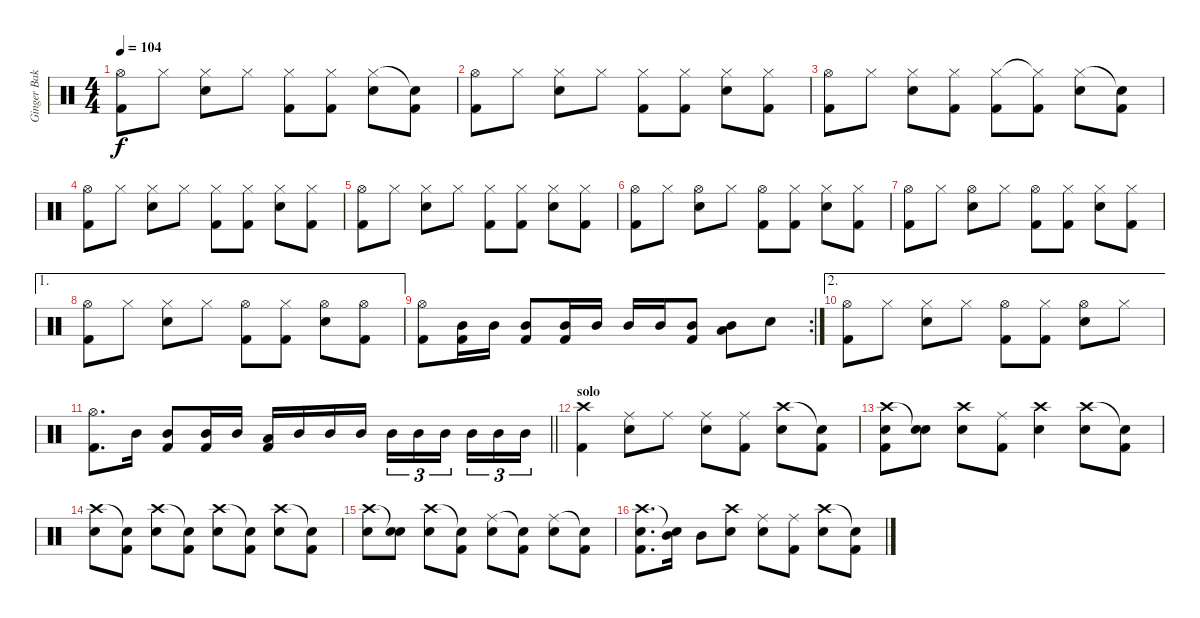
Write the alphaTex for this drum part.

\track ("Ginger Baker" "Ginger Bak") {instrument percussion}
\staff {score}
\articulation defaults
\ts (4 4)
\tempo 104
\clef neutral
\ks c
("Hi-Hat (open)" "Kick (hit) 2").8{dy f} "Hi-Hat (closed)".8 ("Hi-Hat (closed)" "Snare (hit) 2").8 "Hi-Hat (closed)".8 ("Hi-Hat (closed)" "Kick (hit) 2").8 ("Hi-Hat (closed)" "Kick (hit) 2").8 ("Hi-Hat (closed)" "Snare (hit) 2").8 ("Snare (hit)"{t} "Kick (hit) 2").8 |
("Hi-Hat (open)" "Kick (hit) 2").8 "Hi-Hat (closed)".8 ("Hi-Hat (closed)" "Snare (hit) 2").8 "Hi-Hat (closed)".8 ("Hi-Hat (closed)" "Kick (hit) 2").8 ("Hi-Hat (closed)" "Kick (hit) 2").8 ("Hi-Hat (closed)" "Snare (hit) 2").8 ("Hi-Hat (closed)" "Kick (hit) 2").8 |
("Hi-Hat (open)" "Kick (hit) 2").8 "Hi-Hat (closed)".8 ("Hi-Hat (closed)" "Snare (hit) 2").8 ("Hi-Hat (closed)" "Kick (hit) 2").8 ("Hi-Hat (closed)" "Kick (hit) 2").8 ("Hi-Hat (closed)"{t} "Kick (hit) 2").8 ("Hi-Hat (closed)" "Snare (hit) 2").8 ("Snare (hit)"{t} "Kick (hit) 2").8 |
("Hi-Hat (open)" "Kick (hit) 2").8 "Hi-Hat (closed)".8 ("Hi-Hat (closed)" "Snare (hit) 2").8 "Hi-Hat (closed)".8 ("Hi-Hat (closed)" "Kick (hit) 2").8 ("Hi-Hat (closed)" "Kick (hit) 2").8 ("Hi-Hat (closed)" "Snare (hit) 2").8 ("Hi-Hat (closed)" "Kick (hit) 2").8 |
("Hi-Hat (open)" "Kick (hit) 2").8 "Hi-Hat (closed)".8 ("Hi-Hat (closed)" "Snare (hit) 2").8 "Hi-Hat (closed)".8 ("Hi-Hat (closed)" "Kick (hit) 2").8 ("Hi-Hat (closed)" "Kick (hit) 2").8 ("Hi-Hat (closed)" "Snare (hit) 2").8 ("Hi-Hat (closed)" "Kick (hit) 2").8 |
("Hi-Hat (open)" "Kick (hit) 2").8 "Hi-Hat (closed)".8 ("Hi-Hat (open)" "Snare (hit) 2").8 "Hi-Hat (closed)".8 ("Hi-Hat (open)" "Kick (hit) 2").8 ("Hi-Hat (closed)" "Kick (hit) 2").8 ("Hi-Hat (closed)" "Snare (hit) 2").8 ("Hi-Hat (closed)" "Kick (hit) 2").8 |
("Hi-Hat (open)" "Kick (hit) 2").8 "Hi-Hat (closed)".8 ("Hi-Hat (open)" "Snare (hit) 2").8 "Hi-Hat (closed)".8 ("Hi-Hat (open)" "Kick (hit) 2").8 ("Hi-Hat (closed)" "Kick (hit) 2").8 ("Hi-Hat (closed)" "Snare (hit) 2").8 ("Hi-Hat (closed)" "Kick (hit) 2").8 |
\ae 1
("Hi-Hat (open)" "Kick (hit) 2").8 "Hi-Hat (closed)".8 ("Hi-Hat (closed)" "Snare (hit) 2").8 "Hi-Hat (closed)".8 ("Hi-Hat (open)" "Kick (hit) 2").8 ("Hi-Hat (closed)" "Kick (hit) 2").8 ("Hi-Hat (open)" "Snare (hit) 2").8 ("Hi-Hat (open)" "Kick (hit) 2").8 |
\rc 2
("Hi-Hat (open)" "Kick (hit) 2").8 ("Mid Tom (hit)" "Kick (hit) 2").16 "Mid Tom (hit)".16 ("Mid Tom (hit)" "Kick (hit) 2").8 ("Mid Tom (hit)" "Kick (hit) 2").16 "Mid Tom (hit)".16 "Mid Tom (hit)".16 "Mid Tom (hit)".16 ("Mid Tom (hit)" "Kick (hit) 2").8 ("Low Tom (hit)" "Mid Tom (hit)").8 "Snare (hit) 2".8 |
\ae 2
("Hi-Hat (open)" "Kick (hit) 2").8 "Hi-Hat (closed)".8 ("Hi-Hat (closed)" "Snare (hit) 2").8 "Hi-Hat (closed)".8 ("Hi-Hat (open)" "Kick (hit) 2").8 ("Hi-Hat (closed)" "Kick (hit) 2").8 ("Hi-Hat (open)" "Snare (hit) 2").8 "Hi-Hat (closed)".8 |
\barLineRight lightlight
("Hi-Hat (open)" "Kick (hit) 2").8{d} "Mid Tom (hit)".16 ("Mid Tom (hit)" "Kick (hit) 2").8 ("Mid Tom (hit)" "Kick (hit) 2").16 "Mid Tom (hit)".16 ("Low Tom (hit)" "Kick (hit) 2").16 "Mid Tom (hit)".16 "Mid Tom (hit)".16 "Mid Tom (hit)".16 "Mid Tom (hit)".16{tu (3 2)} "Mid Tom (hit)".16{tu (3 2)} "Mid Tom (hit)".16{tu (3 2)} "Mid Tom (hit)".16{tu (3 2)} "Mid Tom (hit)".16{tu (3 2)} "Mid Tom (hit)".16{tu (3 2)} |
\section ("" "solo")
("Crash high (hit)" "Kick (hit) 2").4 ("Ride (middle)" "Snare (hit) 2").8 "Ride (middle)".8 ("Ride (middle)" "Snare (hit) 2").8 ("Ride (middle)" "Kick (hit) 2").8 ("Crash high (hit)" "Snare (hit) 2").8 ("Snare (hit)"{t} "Kick (hit) 2").8 |
("Crash high (hit)" "Snare (hit) 2" "Kick (hit) 2").8 ("Snare (hit)"{t} "Snare (hit) 2").8 ("Crash high (hit)" "Snare (hit) 2").8 ("Ride (middle)" "Kick (hit) 2").8 ("Crash high (hit)" "Snare (hit) 2").4 ("Crash high (hit)" "Snare (hit) 2").8 ("Snare (hit)"{t} "Kick (hit) 2").8 |
("Crash high (hit)" "Snare (hit) 2").8 ("Snare (hit)"{t} "Kick (hit) 2").8 ("Crash high (hit)" "Snare (hit) 2").8 ("Snare (hit)"{t} "Kick (hit) 2").8 ("Crash high (hit)" "Snare (hit) 2").8 ("Snare (hit)"{t} "Kick (hit) 2").8 ("Crash high (hit)" "Snare (hit) 2").8 ("Snare (hit)"{t} "Kick (hit) 2").8 |
("Crash high (hit)" "Snare (hit) 2").8 ("Snare (hit)"{t} "Snare (hit) 2").8 ("Crash high (hit)" "Snare (hit) 2").8 ("Snare (hit)"{t} "Kick (hit) 2").8 ("Ride (middle)" "Snare (hit) 2").8 ("Snare (hit)"{t} "Kick (hit) 2").8 ("Ride (middle)" "Snare (hit) 2").8 ("Snare (hit)"{t} "Kick (hit) 2").8 |
("Crash high (hit)" "Snare (hit) 2" "Kick (hit) 2").8{d} ("Snare (hit)"{t} "Mid Tom (hit)").16 "Mid Tom (hit)".8 ("Crash high (hit)" "Snare (hit) 2").8 ("Ride (middle)" "Snare (hit) 2").8 ("Ride (middle)" "Kick (hit) 2").8 ("Crash high (hit)" "Snare (hit) 2").8 ("Snare (hit)"{t} "Kick (hit) 2").8
